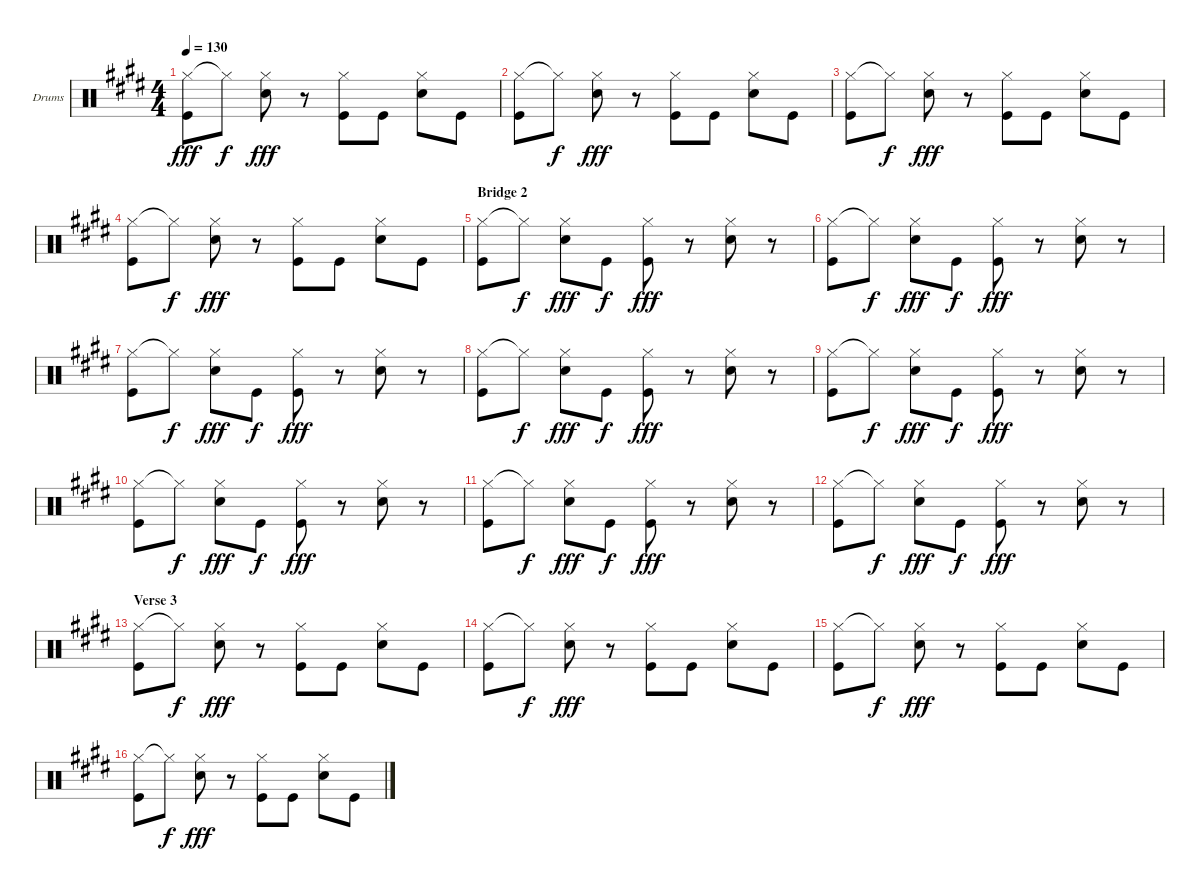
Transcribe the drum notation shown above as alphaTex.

\defaultSystemsLayout 4
\bracketExtendMode groupsimilarinstruments
\firstSystemTrackNameOrientation horizontal
\otherSystemsTrackNameOrientation horizontal
\chordDiagramsInScore
\track ("Drums" "Drums") {instrument percussion}
\staff {score}
\articulation defaults
\ts (4 4)
\tempo 130
\clef neutral
\scale
0.25
\ks e
("Hi-Hat (closed)" "Kick (hit)").8{dy fff} "Hi-Hat (closed)"{t}.8{dy f} ("Hi-Hat (closed)" "Snare (hit) 2").8{dy fff} r.8 ("Hi-Hat (closed)" "Kick (hit)").8 "Kick (hit)".8 ("Hi-Hat (closed)" "Snare (hit) 2").8 "Kick (hit)".8 |
\scale
0.25 ("Hi-Hat (closed)" "Kick (hit)").8 "Hi-Hat (closed)"{t}.8{dy f} ("Hi-Hat (closed)" "Snare (hit) 2").8{dy fff} r.8 ("Hi-Hat (closed)" "Kick (hit)").8 "Kick (hit)".8 ("Hi-Hat (closed)" "Snare (hit) 2").8 "Kick (hit)".8 |
\scale
0.25 ("Hi-Hat (closed)" "Kick (hit)").8 "Hi-Hat (closed)"{t}.8{dy f} ("Hi-Hat (closed)" "Snare (hit) 2").8{dy fff} r.8 ("Hi-Hat (closed)" "Kick (hit)").8 "Kick (hit)".8 ("Hi-Hat (closed)" "Snare (hit) 2").8 "Kick (hit)".8 |
\scale
0.25 ("Hi-Hat (closed)" "Kick (hit)").8 "Hi-Hat (closed)"{t}.8{dy f} ("Hi-Hat (closed)" "Snare (hit) 2").8{dy fff} r.8 ("Hi-Hat (closed)" "Kick (hit)").8 "Kick (hit)".8 ("Hi-Hat (closed)" "Snare (hit) 2").8 "Kick (hit)".8 |
\section ("" "Bridge 2")
\scale
0.25 ("Hi-Hat (closed)" "Kick (hit)").8 "Hi-Hat (closed)"{t}.8{dy f} ("Hi-Hat (closed)" "Snare (hit) 2").8{dy fff} "Kick (hit)".8{dy f} ("Hi-Hat (closed)" "Kick (hit)").8{dy fff} r.8 ("Hi-Hat (closed)" "Snare (hit) 2").8 r.8 |
\scale
0.25 ("Hi-Hat (closed)" "Kick (hit)").8 "Hi-Hat (closed)"{t}.8{dy f} ("Hi-Hat (closed)" "Snare (hit) 2").8{dy fff} "Kick (hit)".8{dy f} ("Hi-Hat (closed)" "Kick (hit)").8{dy fff} r.8 ("Hi-Hat (closed)" "Snare (hit) 2").8 r.8 |
\scale
0.25 ("Hi-Hat (closed)" "Kick (hit)").8 "Hi-Hat (closed)"{t}.8{dy f} ("Hi-Hat (closed)" "Snare (hit) 2").8{dy fff} "Kick (hit)".8{dy f} ("Hi-Hat (closed)" "Kick (hit)").8{dy fff} r.8 ("Hi-Hat (closed)" "Snare (hit) 2").8 r.8 |
\scale
0.25 ("Hi-Hat (closed)" "Kick (hit)").8 "Hi-Hat (closed)"{t}.8{dy f} ("Hi-Hat (closed)" "Snare (hit) 2").8{dy fff} "Kick (hit)".8{dy f} ("Hi-Hat (closed)" "Kick (hit)").8{dy fff} r.8 ("Hi-Hat (closed)" "Snare (hit) 2").8 r.8 |
\scale
0.25 ("Hi-Hat (closed)" "Kick (hit)").8 "Hi-Hat (closed)"{t}.8{dy f} ("Hi-Hat (closed)" "Snare (hit) 2").8{dy fff} "Kick (hit)".8{dy f} ("Hi-Hat (closed)" "Kick (hit)").8{dy fff} r.8 ("Hi-Hat (closed)" "Snare (hit) 2").8 r.8 |
\scale
0.25 ("Hi-Hat (closed)" "Kick (hit)").8 "Hi-Hat (closed)"{t}.8{dy f} ("Hi-Hat (closed)" "Snare (hit) 2").8{dy fff} "Kick (hit)".8{dy f} ("Hi-Hat (closed)" "Kick (hit)").8{dy fff} r.8 ("Hi-Hat (closed)" "Snare (hit) 2").8 r.8 |
\scale
0.25 ("Hi-Hat (closed)" "Kick (hit)").8 "Hi-Hat (closed)"{t}.8{dy f} ("Hi-Hat (closed)" "Snare (hit) 2").8{dy fff} "Kick (hit)".8{dy f} ("Hi-Hat (closed)" "Kick (hit)").8{dy fff} r.8 ("Hi-Hat (closed)" "Snare (hit) 2").8 r.8 |
\scale
0.25 ("Hi-Hat (closed)" "Kick (hit)").8 "Hi-Hat (closed)"{t}.8{dy f} ("Hi-Hat (closed)" "Snare (hit) 2").8{dy fff} "Kick (hit)".8{dy f} ("Hi-Hat (closed)" "Kick (hit)").8{dy fff} r.8 ("Hi-Hat (closed)" "Snare (hit) 2").8 r.8 |
\section ("" "Verse 3")
\scale
0.25 ("Hi-Hat (closed)" "Kick (hit)").8 "Hi-Hat (closed)"{t}.8{dy f} ("Hi-Hat (closed)" "Snare (hit) 2").8{dy fff} r.8 ("Hi-Hat (closed)" "Kick (hit)").8 "Kick (hit)".8 ("Hi-Hat (closed)" "Snare (hit) 2").8 "Kick (hit)".8 |
\scale
0.25 ("Hi-Hat (closed)" "Kick (hit)").8 "Hi-Hat (closed)"{t}.8{dy f} ("Hi-Hat (closed)" "Snare (hit) 2").8{dy fff} r.8 ("Hi-Hat (closed)" "Kick (hit)").8 "Kick (hit)".8 ("Hi-Hat (closed)" "Snare (hit) 2").8 "Kick (hit)".8 |
\scale
0.25 ("Hi-Hat (closed)" "Kick (hit)").8 "Hi-Hat (closed)"{t}.8{dy f} ("Hi-Hat (closed)" "Snare (hit) 2").8{dy fff} r.8 ("Hi-Hat (closed)" "Kick (hit)").8 "Kick (hit)".8 ("Hi-Hat (closed)" "Snare (hit) 2").8 "Kick (hit)".8 |
\scale
0.25 ("Hi-Hat (closed)" "Kick (hit)").8 "Hi-Hat (closed)"{t}.8{dy f} ("Hi-Hat (closed)" "Snare (hit) 2").8{dy fff} r.8 ("Hi-Hat (closed)" "Kick (hit)").8 "Kick (hit)".8 ("Hi-Hat (closed)" "Snare (hit) 2").8 "Kick (hit)".8
